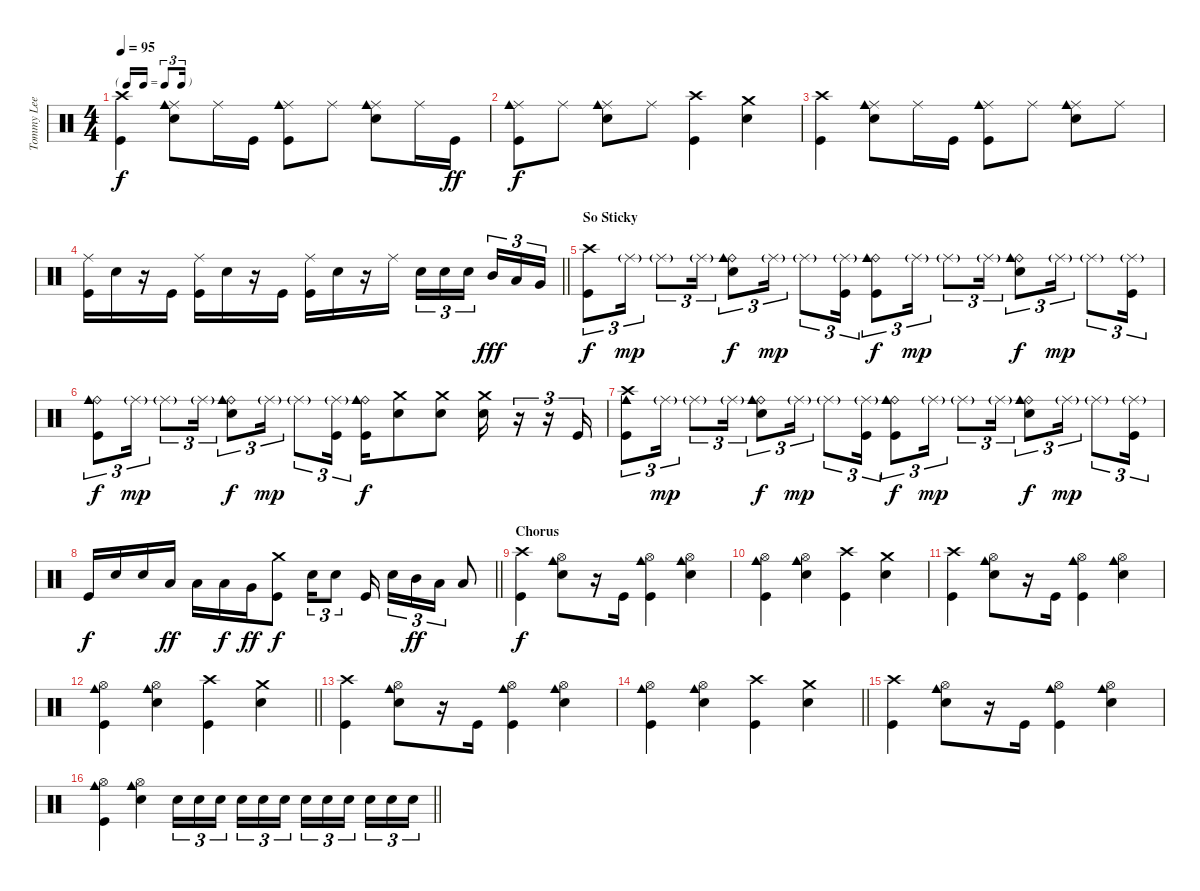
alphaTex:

\track ("Tommy Lee" "Tommy Lee") {instrument percussion}
\staff {score}
\articulation defaults
\ts (4 4)
\tf triplet16th
\tempo 95
\clef neutral
\ks c
("Crash high (hit)" "Kick (hit)").4{dy f} ("Ride (middle)" "Cowbell medium (hit)" "Snare (hit) 2").8 "Ride (middle)".16 "Kick (hit)".16 ("Ride (middle)" "Cowbell medium (hit)" "Kick (hit)").8 "Ride (middle)".8 ("Ride (middle)" "Cowbell medium (hit)" "Snare (hit) 2").8 "Ride (middle)".16 "Kick (hit)".16{dy ff} |
("Ride (middle)" "Cowbell medium (hit)" "Kick (hit)").8{dy f} "Ride (middle)".8 ("Ride (middle)" "Cowbell medium (hit)" "Snare (hit) 2").8 "Ride (middle)".8 ("Crash high (hit)" "Kick (hit)").4 ("Crash medium (hit)" "Snare (hit) 2").4 |
("Crash high (hit)" "Kick (hit)").4 ("Ride (middle)" "Cowbell medium (hit)" "Snare (hit) 2").8 "Ride (middle)".16 "Kick (hit)".16 ("Ride (middle)" "Cowbell medium (hit)" "Kick (hit)").8 "Ride (middle)".8 ("Ride (middle)" "Cowbell medium (hit)" "Snare (hit) 2").8 "Ride (middle)".8 |
\barLineRight lightlight
("Ride (middle)" "Kick (hit)").16 "Snare (hit) 2".16 r.16 "Kick (hit)".16 ("Ride (middle)" "Kick (hit)").16 "Snare (hit) 2".16 r.16 "Kick (hit)".16 ("Ride (middle)" "Kick (hit)").16 "Snare (hit) 2".16 r.16 "Ride (middle)".16 "Snare (hit) 2".16{tu (3 2)} "Snare (hit) 2".16{tu (3 2)} "Snare (hit) 2".16{tu (3 2)} "Mid Tom (hit)".16{tu (3 2) dy fff} "Low Tom (hit)".16{tu (3 2)} "Very Low Tom (hit)".16{tu (3 2)} |
\section ("" "So Sticky")
("Crash high (hit)" "Kick (hit)").8{tu (3 2) dy f} "Ride (middle)"{g}.16{tu (3 2) dy mp} "Ride (middle)"{g}.8{tu (3 2)} "Ride (middle)"{g}.16{tu (3 2)} ("Ride (bell)" "Cowbell medium (hit)" "Snare (hit) 2").8{tu (3 2) dy f} "Ride (middle)"{g}.16{tu (3 2) dy mp} "Ride (middle)"{g}.8{tu (3 2)} ("Ride (middle)"{g} "Kick (hit)").16{tu (3 2)} ("Ride (bell)" "Cowbell medium (hit)" "Kick (hit)").8{tu (3 2) dy f} "Ride (middle)"{g}.16{tu (3 2) dy mp} "Ride (middle)"{g}.8{tu (3 2)} "Ride (middle)"{g}.16{tu (3 2)} ("Ride (bell)" "Cowbell medium (hit)" "Snare (hit) 2").8{tu (3 2) dy f} "Ride (middle)"{g}.16{tu (3 2) dy mp} "Ride (middle)"{g}.8{tu (3 2)} ("Ride (middle)"{g} "Kick (hit)").16{tu (3 2)} |
("Ride (bell)" "Cowbell medium (hit)" "Kick (hit)").8{tu (3 2) dy f} "Ride (middle)"{g}.16{tu (3 2) dy mp} "Ride (middle)"{g}.8{tu (3 2)} "Ride (middle)"{g}.16{tu (3 2)} ("Ride (bell)" "Cowbell medium (hit)" "Snare (hit) 2").8{tu (3 2) dy f} "Ride (middle)"{g}.16{tu (3 2) dy mp} "Ride (middle)"{g}.8{tu (3 2)} ("Ride (middle)"{g} "Kick (hit)").16{tu (3 2)} ("Ride (bell)" "Cowbell medium (hit)" "Kick (hit)").16{dy f} ("Crash medium (hit)" "Snare (hit) 2").8 ("Crash medium (hit)" "Snare (hit) 2").8 ("Crash medium (hit)" "Snare (hit) 2").16 r.16{tu (3 2)} r.16{tu (3 2)} "Kick (hit)".16{tu (3 2)} |
("Crash high (hit)" "Cowbell medium (hit)" "Kick (hit)").8{tu (3 2)} "Ride (middle)"{g}.16{tu (3 2) dy mp} "Ride (middle)"{g}.8{tu (3 2)} "Ride (middle)"{g}.16{tu (3 2)} ("Ride (bell)" "Cowbell medium (hit)" "Snare (hit) 2").8{tu (3 2) dy f} "Ride (middle)"{g}.16{tu (3 2) dy mp} "Ride (middle)"{g}.8{tu (3 2)} ("Ride (middle)"{g} "Kick (hit)").16{tu (3 2)} ("Ride (bell)" "Cowbell medium (hit)" "Kick (hit)").8{tu (3 2) dy f} "Ride (middle)"{g}.16{tu (3 2) dy mp} "Ride (middle)"{g}.8{tu (3 2)} "Ride (middle)"{g}.16{tu (3 2)} ("Ride (bell)" "Cowbell medium (hit)" "Snare (hit) 2").8{tu (3 2) dy f} "Ride (middle)"{g}.16{tu (3 2) dy mp} "Ride (middle)"{g}.8{tu (3 2)} ("Ride (middle)"{g} "Kick (hit)").16{tu (3 2)} |
\barLineRight lightlight "Kick (hit)".16{dy f} "Snare (hit) 2".16 "Snare (hit) 2".16 "Low Tom (hit)".16{dy ff} "Low Tom (hit)".16 "Low Floor Tom (hit)".16{dy f} "Very Low Tom (hit)".16{dy ff}
("Crash medium (hit)" "Kick (hit)").8{dy f} "Snare (hit) 2".16{tu (3 2)} "Snare (hit) 2".8{tu (3 2)} "Kick (hit)".16 "Snare (hit) 2".16{tu (3 2)} "Mid Tom (hit)".16{tu (3 2) dy ff} "Low Tom (hit)".16{tu (3 2)} "Low Floor Tom (hit)".8 |
\section ("" "Chorus")
("Crash high (hit)" "Kick (hit)").4{dy f} ("Hi-Hat (open)" "Cowbell medium (hit)" "Snare (hit) 2").8 r.16 "Kick (hit)".16 ("Hi-Hat (open)" "Cowbell medium (hit)" "Kick (hit)").4 ("Hi-Hat (open)" "Cowbell medium (hit)" "Snare (hit) 2").4 |
("Hi-Hat (open)" "Cowbell medium (hit)" "Kick (hit)").4 ("Hi-Hat (open)" "Cowbell medium (hit)" "Snare (hit) 2").4 ("Crash high (hit)" "Kick (hit)").4 ("Crash medium (hit)" "Snare (hit) 2").4 |
("Crash high (hit)" "Kick (hit)").4 ("Hi-Hat (open)" "Cowbell medium (hit)" "Snare (hit) 2").8 r.16 "Kick (hit)".16 ("Hi-Hat (open)" "Cowbell medium (hit)" "Kick (hit)").4 ("Hi-Hat (open)" "Cowbell medium (hit)" "Snare (hit) 2").4 |
\barLineRight lightlight
("Hi-Hat (open)" "Cowbell medium (hit)" "Kick (hit)").4 ("Hi-Hat (open)" "Cowbell medium (hit)" "Snare (hit) 2").4 ("Crash high (hit)" "Kick (hit)").4 ("Crash medium (hit)" "Snare (hit) 2").4 |
("Crash high (hit)" "Kick (hit)").4 ("Hi-Hat (open)" "Cowbell medium (hit)" "Snare (hit) 2").8 r.16 "Kick (hit)".16 ("Hi-Hat (open)" "Cowbell medium (hit)" "Kick (hit)").4 ("Hi-Hat (open)" "Cowbell medium (hit)" "Snare (hit) 2").4 |
\barLineRight lightlight
("Hi-Hat (open)" "Cowbell medium (hit)" "Kick (hit)").4 ("Hi-Hat (open)" "Cowbell medium (hit)" "Snare (hit) 2").4 ("Crash high (hit)" "Kick (hit)").4 ("Crash medium (hit)" "Snare (hit) 2").4 |
("Crash high (hit)" "Kick (hit)").4 ("Hi-Hat (open)" "Cowbell medium (hit)" "Snare (hit) 2").8 r.16 "Kick (hit)".16 ("Hi-Hat (open)" "Cowbell medium (hit)" "Kick (hit)").4 ("Hi-Hat (open)" "Cowbell medium (hit)" "Snare (hit) 2").4 |
\barLineRight lightlight
("Hi-Hat (open)" "Cowbell medium (hit)" "Kick (hit)").4 ("Hi-Hat (open)" "Cowbell medium (hit)" "Snare (hit) 2").4 "Snare (hit) 2".16{tu (3 2)} "Snare (hit) 2".16{tu (3 2)} "Snare (hit) 2".16{tu (3 2)} "Snare (hit) 2".16{tu (3 2)} "Snare (hit) 2".16{tu (3 2)} "Snare (hit) 2".16{tu (3 2)} "Snare (hit) 2".16{tu (3 2)} "Snare (hit) 2".16{tu (3 2)} "Snare (hit) 2".16{tu (3 2)} "Snare (hit) 2".16{tu (3 2)} "Snare (hit) 2".16{tu (3 2)} "Snare (hit) 2".16{tu (3 2)}
